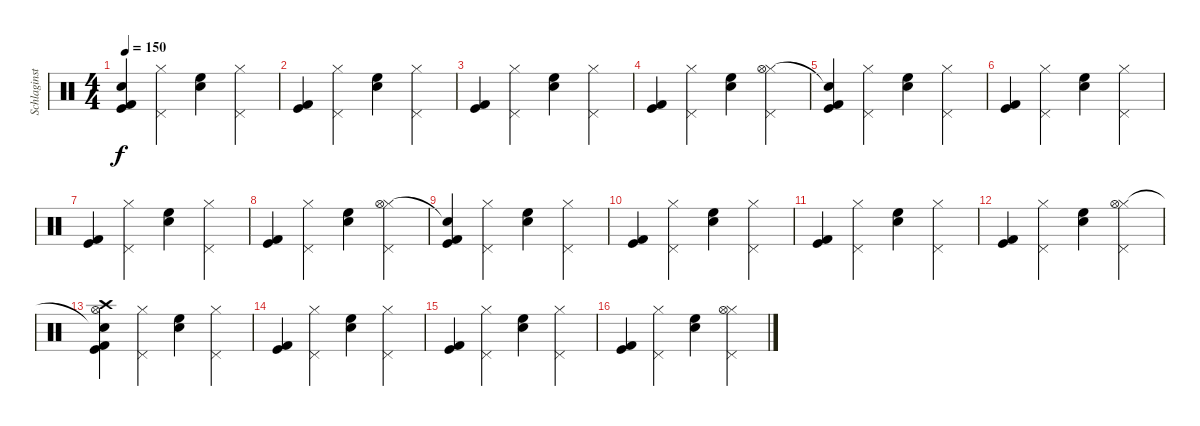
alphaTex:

\track ("Schlaginstrumente - Auswahl" "Schlaginst") {instrument percussion}
\staff {score}
\articulation defaults
\ts (4 4)
\tempo 150
\clef neutral
\ks c
("Kick (hit) 2" "Kick (hit)" "Snare (hit)"{t}).4{dy f} ("Pedal Hi-Hat (hit)" "Hi-Hat (closed)").4 ("High Floor Tom (hit)" "Snare (hit) 2").4 ("Pedal Hi-Hat (hit)" "Hi-Hat (closed)").4 |
("Kick (hit) 2" "Kick (hit)").4 ("Pedal Hi-Hat (hit)" "Hi-Hat (closed)").4 ("High Floor Tom (hit)" "Snare (hit) 2").4 ("Pedal Hi-Hat (hit)" "Hi-Hat (closed)").4 |
("Kick (hit) 2" "Kick (hit)").4 ("Pedal Hi-Hat (hit)" "Hi-Hat (closed)").4 ("High Floor Tom (hit)" "Snare (hit) 2").4 ("Pedal Hi-Hat (hit)" "Hi-Hat (closed)").4 |
("Kick (hit) 2" "Kick (hit)").4 ("Pedal Hi-Hat (hit)" "Hi-Hat (closed)").4 ("High Floor Tom (hit)" "Snare (hit) 2").4 ("Pedal Hi-Hat (hit)" "Hi-Hat (closed)" "Hi-Hat (open)").4 |
("Kick (hit) 2" "Kick (hit)" "Snare (hit)"{t}).4 ("Pedal Hi-Hat (hit)" "Hi-Hat (closed)").4 ("High Floor Tom (hit)" "Snare (hit) 2").4 ("Pedal Hi-Hat (hit)" "Hi-Hat (closed)").4 |
("Kick (hit) 2" "Kick (hit)").4 ("Pedal Hi-Hat (hit)" "Hi-Hat (closed)").4 ("High Floor Tom (hit)" "Snare (hit) 2").4 ("Pedal Hi-Hat (hit)" "Hi-Hat (closed)").4 |
("Kick (hit) 2" "Kick (hit)").4 ("Pedal Hi-Hat (hit)" "Hi-Hat (closed)").4 ("High Floor Tom (hit)" "Snare (hit) 2").4 ("Pedal Hi-Hat (hit)" "Hi-Hat (closed)").4 |
("Kick (hit) 2" "Kick (hit)").4 ("Pedal Hi-Hat (hit)" "Hi-Hat (closed)").4 ("High Floor Tom (hit)" "Snare (hit) 2").4 ("Pedal Hi-Hat (hit)" "Hi-Hat (closed)" "Hi-Hat (open)").4 |
("Kick (hit) 2" "Kick (hit)" "Snare (hit)"{t}).4 ("Pedal Hi-Hat (hit)" "Hi-Hat (closed)").4 ("High Floor Tom (hit)" "Snare (hit) 2").4 ("Pedal Hi-Hat (hit)" "Hi-Hat (closed)").4 |
("Kick (hit) 2" "Kick (hit)").4 ("Pedal Hi-Hat (hit)" "Hi-Hat (closed)").4 ("High Floor Tom (hit)" "Snare (hit) 2").4 ("Pedal Hi-Hat (hit)" "Hi-Hat (closed)").4 |
("Kick (hit) 2" "Kick (hit)").4 ("Pedal Hi-Hat (hit)" "Hi-Hat (closed)").4 ("High Floor Tom (hit)" "Snare (hit) 2").4 ("Pedal Hi-Hat (hit)" "Hi-Hat (closed)").4 |
("Kick (hit) 2" "Kick (hit)").4 ("Pedal Hi-Hat (hit)" "Hi-Hat (closed)").4 ("High Floor Tom (hit)" "Snare (hit) 2").4 ("Pedal Hi-Hat (hit)" "Hi-Hat (closed)" "Hi-Hat (open)").4 |
("Kick (hit) 2" "Kick (hit)" "Snare (hit)"{t} "Hi-Hat (open)" "Crash high (hit)").4 ("Pedal Hi-Hat (hit)" "Hi-Hat (closed)").4 ("High Floor Tom (hit)" "Snare (hit) 2").4 ("Pedal Hi-Hat (hit)" "Hi-Hat (closed)").4 |
("Kick (hit) 2" "Kick (hit)").4 ("Pedal Hi-Hat (hit)" "Hi-Hat (closed)").4 ("High Floor Tom (hit)" "Snare (hit) 2").4 ("Pedal Hi-Hat (hit)" "Hi-Hat (closed)").4 |
("Kick (hit) 2" "Kick (hit)").4 ("Pedal Hi-Hat (hit)" "Hi-Hat (closed)").4 ("High Floor Tom (hit)" "Snare (hit) 2").4 ("Pedal Hi-Hat (hit)" "Hi-Hat (closed)").4 |
("Kick (hit) 2" "Kick (hit)").4 ("Pedal Hi-Hat (hit)" "Hi-Hat (closed)").4 ("High Floor Tom (hit)" "Snare (hit) 2").4 ("Pedal Hi-Hat (hit)" "Hi-Hat (closed)" "Hi-Hat (open)").4
